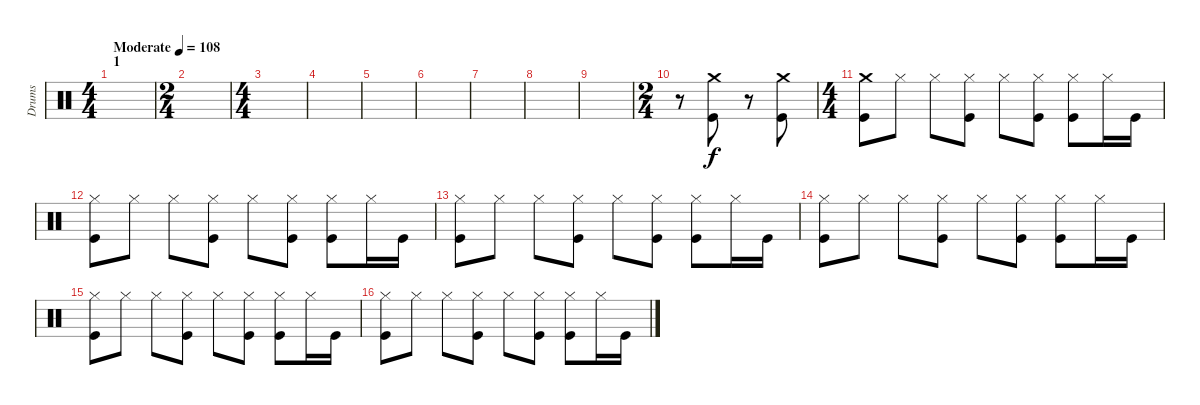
\track ("Drums" "Drums") {instrument percussion}
\staff {score}
\articulation defaults
\ts (4 4)
\section ("" "1")
\tempo (108 "Moderate")
\clef neutral
\ks c
|
\ts (2 4)
|
\ts (4 4)
|
|
|
|
|
|
|
\ts (2 4)
r.8 ("Kick (hit)" "Crash medium (hit)").8 r.8 ("Kick (hit)" "Crash medium (hit)").8 |
\ts (4 4)
("Crash medium (hit)" "Kick (hit)").8 "Hi-Hat (closed)".8 "Hi-Hat (closed)".8 ("Kick (hit)" "Hi-Hat (closed)").8 "Hi-Hat (closed)".8 ("Kick (hit)" "Hi-Hat (closed)").8 ("Kick (hit)" "Hi-Hat (closed)").8 "Hi-Hat (closed)".16 "Kick (hit)".16 |
("Kick (hit)" "Hi-Hat (closed)").8 "Hi-Hat (closed)".8 "Hi-Hat (closed)".8 ("Kick (hit)" "Hi-Hat (closed)").8 "Hi-Hat (closed)".8 ("Kick (hit)" "Hi-Hat (closed)").8 ("Kick (hit)" "Hi-Hat (closed)").8 "Hi-Hat (closed)".16 "Kick (hit)".16 |
("Kick (hit)" "Hi-Hat (closed)").8 "Hi-Hat (closed)".8 "Hi-Hat (closed)".8 ("Kick (hit)" "Hi-Hat (closed)").8 "Hi-Hat (closed)".8 ("Kick (hit)" "Hi-Hat (closed)").8 ("Kick (hit)" "Hi-Hat (closed)").8 "Hi-Hat (closed)".16 "Kick (hit)".16 |
("Kick (hit)" "Hi-Hat (closed)").8 "Hi-Hat (closed)".8 "Hi-Hat (closed)".8 ("Kick (hit)" "Hi-Hat (closed)").8 "Hi-Hat (closed)".8 ("Kick (hit)" "Hi-Hat (closed)").8 ("Kick (hit)" "Hi-Hat (closed)").8 "Hi-Hat (closed)".16 "Kick (hit)".16 |
("Kick (hit)" "Hi-Hat (closed)").8 "Hi-Hat (closed)".8 "Hi-Hat (closed)".8 ("Kick (hit)" "Hi-Hat (closed)").8 "Hi-Hat (closed)".8 ("Kick (hit)" "Hi-Hat (closed)").8 ("Kick (hit)" "Hi-Hat (closed)").8 "Hi-Hat (closed)".16 "Kick (hit)".16 |
("Kick (hit)" "Hi-Hat (closed)").8 "Hi-Hat (closed)".8 "Hi-Hat (closed)".8 ("Kick (hit)" "Hi-Hat (closed)").8 "Hi-Hat (closed)".8 ("Kick (hit)" "Hi-Hat (closed)").8 ("Kick (hit)" "Hi-Hat (closed)").8 "Hi-Hat (closed)".16 "Kick (hit)".16
